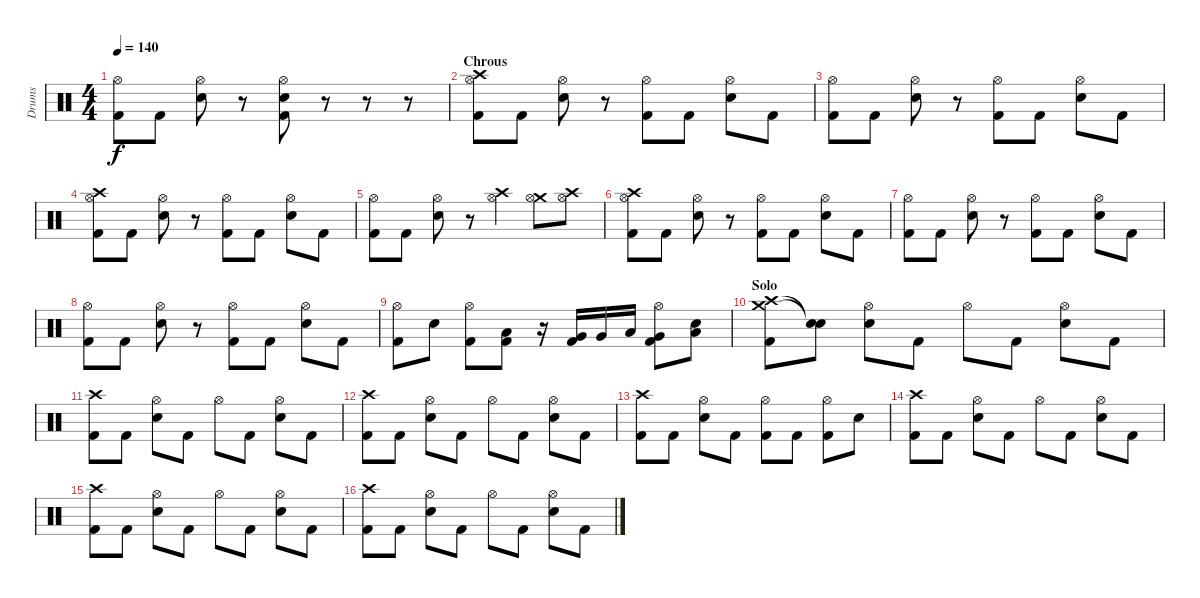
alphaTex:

\track ("Drums" "Drums") {instrument percussion}
\staff {score}
\articulation defaults
\ts (4 4)
\tempo 140
\clef neutral
\ks c
("Hi-Hat (open)" "Kick (hit) 2").8{dy f} "Kick (hit) 2".8 ("Hi-Hat (open)" "Electric Snare (hit)").8 r.8 ("Hi-Hat (open)" "Electric Snare (hit)" "Kick (hit) 2").8 r.8 r.8 r.8 |
\section ("" "Chrous")
("Crash high (hit)" "Hi-Hat (open)" "Kick (hit) 2").8 "Kick (hit) 2".8 ("Hi-Hat (open)" "Electric Snare (hit)").8 r.8 ("Hi-Hat (open)" "Kick (hit) 2").8 "Kick (hit) 2".8 ("Hi-Hat (open)" "Electric Snare (hit)").8 "Kick (hit) 2".8 |
("Hi-Hat (open)" "Kick (hit) 2").8 "Kick (hit) 2".8 ("Hi-Hat (open)" "Electric Snare (hit)").8 r.8 ("Hi-Hat (open)" "Kick (hit) 2").8 "Kick (hit) 2".8 ("Hi-Hat (open)" "Electric Snare (hit)").8 "Kick (hit) 2".8 |
("Crash high (hit)" "Hi-Hat (open)" "Kick (hit) 2").8 "Kick (hit) 2".8 ("Hi-Hat (open)" "Electric Snare (hit)").8 r.8 ("Hi-Hat (open)" "Kick (hit) 2").8 "Kick (hit) 2".8 ("Hi-Hat (open)" "Electric Snare (hit)").8 "Kick (hit) 2".8 |
("Hi-Hat (open)" "Kick (hit) 2").8 "Kick (hit) 2".8 ("Hi-Hat (open)" "Electric Snare (hit)").8 r.8 ("Crash high (hit)" "Hi-Hat (open)").4 ("Crash medium (hit)" "Hi-Hat (open)").8 ("Crash high (hit)" "Hi-Hat (open)").8 |
("Crash high (hit)" "Hi-Hat (open)" "Kick (hit) 2").8 "Kick (hit) 2".8 ("Hi-Hat (open)" "Electric Snare (hit)").8 r.8 ("Hi-Hat (open)" "Kick (hit) 2").8 "Kick (hit) 2".8 ("Hi-Hat (open)" "Electric Snare (hit)").8 "Kick (hit) 2".8 |
("Hi-Hat (open)" "Kick (hit) 2").8 "Kick (hit) 2".8 ("Hi-Hat (open)" "Electric Snare (hit)").8 r.8 ("Hi-Hat (open)" "Kick (hit) 2").8 "Kick (hit) 2".8 ("Hi-Hat (open)" "Electric Snare (hit)").8 "Kick (hit) 2".8 |
("Hi-Hat (open)" "Kick (hit) 2").8 "Kick (hit) 2".8 ("Hi-Hat (open)" "Electric Snare (hit)").8 r.8 ("Hi-Hat (open)" "Kick (hit) 2").8 "Kick (hit) 2".8 ("Hi-Hat (open)" "Electric Snare (hit)").8 "Kick (hit) 2".8 |
("Hi-Hat (open)" "Kick (hit) 2").8 "Electric Snare (hit)".8 ("Hi-Hat (open)" "Kick (hit) 2").8 ("Low Tom (hit)" "Kick (hit) 2").8 r.16 ("Very Low Tom (hit)" "Kick (hit) 2").16 "Very Low Tom (hit)".16 "Low Floor Tom (hit)".16 ("Hi-Hat (open)" "Very Low Tom (hit)" "Kick (hit) 2").8 ("Low Tom (hit)" "Electric Snare (hit)").8 |
\section ("" "Solo")
("Crash high (hit)" "Crash medium (hit)" "Kick (hit) 2").8 ("Snare (hit)"{t} "Snare (hit)"{t}).8 ("Hi-Hat (open)" "Electric Snare (hit)").8 "Kick (hit) 2".8 "Hi-Hat (open)".8 "Kick (hit) 2".8 ("Hi-Hat (open)" "Electric Snare (hit)").8 "Kick (hit) 2".8 |
("Crash high (hit)" "Kick (hit) 2").8 "Kick (hit) 2".8 ("Hi-Hat (open)" "Electric Snare (hit)").8 "Kick (hit) 2".8 "Hi-Hat (open)".8 "Kick (hit) 2".8 ("Hi-Hat (open)" "Electric Snare (hit)").8 "Kick (hit) 2".8 |
("Crash high (hit)" "Kick (hit) 2").8 "Kick (hit) 2".8 ("Hi-Hat (open)" "Electric Snare (hit)").8 "Kick (hit) 2".8 "Hi-Hat (open)".8 "Kick (hit) 2".8 ("Hi-Hat (open)" "Electric Snare (hit)").8 "Kick (hit) 2".8 |
("Crash high (hit)" "Kick (hit) 2").8 "Kick (hit) 2".8 ("Hi-Hat (open)" "Electric Snare (hit)").8 "Kick (hit) 2".8 ("Hi-Hat (open)" "Kick (hit) 2").8 "Kick (hit) 2".8 ("Hi-Hat (open)" "Kick (hit) 2").8 "Electric Snare (hit)".8 |
("Crash high (hit)" "Kick (hit) 2").8 "Kick (hit) 2".8 ("Hi-Hat (open)" "Electric Snare (hit)").8 "Kick (hit) 2".8 "Hi-Hat (open)".8 "Kick (hit) 2".8 ("Hi-Hat (open)" "Electric Snare (hit)").8 "Kick (hit) 2".8 |
("Crash high (hit)" "Kick (hit) 2").8 "Kick (hit) 2".8 ("Hi-Hat (open)" "Electric Snare (hit)").8 "Kick (hit) 2".8 "Hi-Hat (open)".8 "Kick (hit) 2".8 ("Hi-Hat (open)" "Electric Snare (hit)").8 "Kick (hit) 2".8 |
("Crash high (hit)" "Kick (hit) 2").8 "Kick (hit) 2".8 ("Hi-Hat (open)" "Electric Snare (hit)").8 "Kick (hit) 2".8 "Hi-Hat (open)".8 "Kick (hit) 2".8 ("Hi-Hat (open)" "Electric Snare (hit)").8 "Kick (hit) 2".8
